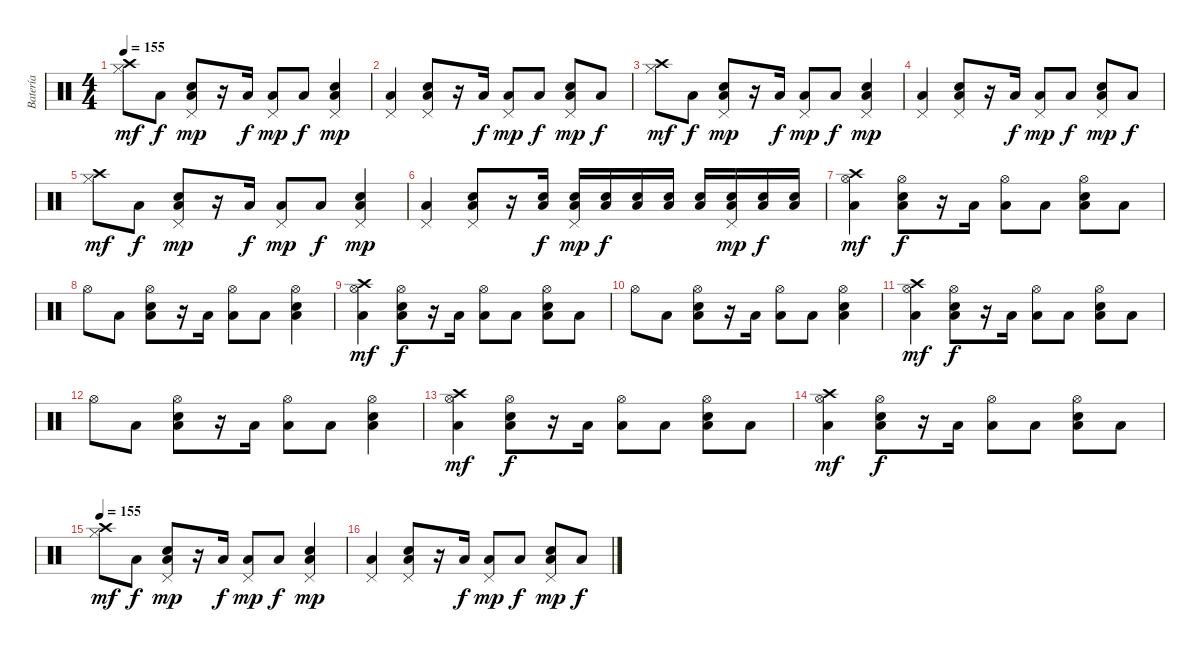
\track ("Batería" "Batería") {instrument percussion}
\staff {score}
\articulation defaults
\ts (4 4)
\tempo 155
\clef neutral
\ks c
("Hi-Hat (closed)" "Crash high (hit)").8{dy mf} "Low Floor Tom (hit)".8{dy f} ("Low Floor Tom (hit)" "Snare (hit) 2" "Pedal Hi-Hat (hit)").8{dy mp} r.16 "Low Floor Tom (hit)".16{dy f} ("Low Floor Tom (hit)" "Pedal Hi-Hat (hit)").8{dy mp} "Low Floor Tom (hit)".8{dy f} ("Low Floor Tom (hit)" "Snare (hit) 2" "Pedal Hi-Hat (hit)").4{dy mp} |
("Low Floor Tom (hit)" "Pedal Hi-Hat (hit)").4 ("Low Floor Tom (hit)" "Snare (hit) 2" "Pedal Hi-Hat (hit)").8 r.16 "Low Floor Tom (hit)".16{dy f} ("Low Floor Tom (hit)" "Pedal Hi-Hat (hit)").8{dy mp} "Low Floor Tom (hit)".8{dy f} ("Low Floor Tom (hit)" "Snare (hit) 2" "Pedal Hi-Hat (hit)").8{dy mp} "Low Floor Tom (hit)".8{dy f} |
("Hi-Hat (closed)" "Crash high (hit)").8{dy mf} "Low Floor Tom (hit)".8{dy f} ("Low Floor Tom (hit)" "Snare (hit) 2" "Pedal Hi-Hat (hit)").8{dy mp} r.16 "Low Floor Tom (hit)".16{dy f} ("Low Floor Tom (hit)" "Pedal Hi-Hat (hit)").8{dy mp} "Low Floor Tom (hit)".8{dy f} ("Low Floor Tom (hit)" "Snare (hit) 2" "Pedal Hi-Hat (hit)").4{dy mp} |
("Low Floor Tom (hit)" "Pedal Hi-Hat (hit)").4 ("Low Floor Tom (hit)" "Snare (hit) 2" "Pedal Hi-Hat (hit)").8 r.16 "Low Floor Tom (hit)".16{dy f} ("Low Floor Tom (hit)" "Pedal Hi-Hat (hit)").8{dy mp} "Low Floor Tom (hit)".8{dy f} ("Low Floor Tom (hit)" "Snare (hit) 2" "Pedal Hi-Hat (hit)").8{dy mp} "Low Floor Tom (hit)".8{dy f} |
("Hi-Hat (closed)" "Crash high (hit)").8{dy mf} "Low Floor Tom (hit)".8{dy f} ("Low Floor Tom (hit)" "Snare (hit) 2" "Pedal Hi-Hat (hit)").8{dy mp} r.16 "Low Floor Tom (hit)".16{dy f} ("Low Floor Tom (hit)" "Pedal Hi-Hat (hit)").8{dy mp} "Low Floor Tom (hit)".8{dy f} ("Low Floor Tom (hit)" "Snare (hit) 2" "Pedal Hi-Hat (hit)").4{dy mp} |
("Low Floor Tom (hit)" "Pedal Hi-Hat (hit)").4 ("Low Floor Tom (hit)" "Snare (hit) 2" "Pedal Hi-Hat (hit)").8 r.16 ("Low Floor Tom (hit)" "Snare (hit) 2").16{dy f} ("Low Floor Tom (hit)" "Snare (hit) 2" "Pedal Hi-Hat (hit)").16{dy mp} ("Low Floor Tom (hit)" "Snare (hit) 2").16{dy f} ("Low Floor Tom (hit)" "Snare (hit) 2").16 ("Low Floor Tom (hit)" "Snare (hit) 2").16 ("Low Floor Tom (hit)" "Snare (hit) 2").16 ("Low Floor Tom (hit)" "Snare (hit) 2" "Pedal Hi-Hat (hit)").16{dy mp} ("Low Floor Tom (hit)" "Snare (hit) 2").16{dy f} ("Low Floor Tom (hit)" "Snare (hit) 2").16 |
("Low Floor Tom (hit)" "Hi-Hat (open)" "Crash high (hit)").4{dy mf} ("Low Floor Tom (hit)" "Snare (hit) 2" "Hi-Hat (open)").8{dy f} r.16 "Low Floor Tom (hit)".16 ("Low Floor Tom (hit)" "Hi-Hat (open)").8 "Low Floor Tom (hit)".8 ("Low Floor Tom (hit)" "Snare (hit) 2" "Hi-Hat (open)").8 "Low Floor Tom (hit)".8 |
"Hi-Hat (open)".8 "Low Floor Tom (hit)".8 ("Low Floor Tom (hit)" "Snare (hit) 2" "Hi-Hat (open)").8 r.16 "Low Floor Tom (hit)".16 ("Low Floor Tom (hit)" "Hi-Hat (open)").8 "Low Floor Tom (hit)".8 ("Low Floor Tom (hit)" "Snare (hit) 2" "Hi-Hat (open)").4 |
("Low Floor Tom (hit)" "Hi-Hat (open)" "Crash high (hit)").4{dy mf} ("Low Floor Tom (hit)" "Snare (hit) 2" "Hi-Hat (open)").8{dy f} r.16 "Low Floor Tom (hit)".16 ("Low Floor Tom (hit)" "Hi-Hat (open)").8 "Low Floor Tom (hit)".8 ("Low Floor Tom (hit)" "Snare (hit) 2" "Hi-Hat (open)").8 "Low Floor Tom (hit)".8 |
"Hi-Hat (open)".8 "Low Floor Tom (hit)".8 ("Low Floor Tom (hit)" "Snare (hit) 2" "Hi-Hat (open)").8 r.16 "Low Floor Tom (hit)".16 ("Low Floor Tom (hit)" "Hi-Hat (open)").8 "Low Floor Tom (hit)".8 ("Low Floor Tom (hit)" "Snare (hit) 2" "Hi-Hat (open)").4 |
("Low Floor Tom (hit)" "Hi-Hat (open)" "Crash high (hit)").4{dy mf} ("Low Floor Tom (hit)" "Snare (hit) 2" "Hi-Hat (open)").8{dy f} r.16 "Low Floor Tom (hit)".16 ("Low Floor Tom (hit)" "Hi-Hat (open)").8 "Low Floor Tom (hit)".8 ("Low Floor Tom (hit)" "Snare (hit) 2" "Hi-Hat (open)").8 "Low Floor Tom (hit)".8 |
"Hi-Hat (open)".8 "Low Floor Tom (hit)".8 ("Low Floor Tom (hit)" "Snare (hit) 2" "Hi-Hat (open)").8 r.16 "Low Floor Tom (hit)".16 ("Low Floor Tom (hit)" "Hi-Hat (open)").8 "Low Floor Tom (hit)".8 ("Low Floor Tom (hit)" "Snare (hit) 2" "Hi-Hat (open)").4 |
("Low Floor Tom (hit)" "Hi-Hat (open)" "Crash high (hit)").4{dy mf} ("Low Floor Tom (hit)" "Snare (hit) 2" "Hi-Hat (open)").8{dy f} r.16 "Low Floor Tom (hit)".16 ("Low Floor Tom (hit)" "Hi-Hat (open)").8 "Low Floor Tom (hit)".8 ("Low Floor Tom (hit)" "Snare (hit) 2" "Hi-Hat (open)").8 "Low Floor Tom (hit)".8 |
("Low Floor Tom (hit)" "Hi-Hat (open)" "Crash high (hit)").4{dy mf} ("Low Floor Tom (hit)" "Snare (hit) 2" "Hi-Hat (open)").8{dy f} r.16 "Low Floor Tom (hit)".16 ("Low Floor Tom (hit)" "Hi-Hat (open)").8 "Low Floor Tom (hit)".8 ("Low Floor Tom (hit)" "Snare (hit) 2" "Hi-Hat (open)").8 "Low Floor Tom (hit)".8 |
\tempo 155
("Hi-Hat (closed)" "Crash high (hit)").8{dy mf} "Low Floor Tom (hit)".8{dy f} ("Low Floor Tom (hit)" "Snare (hit) 2" "Pedal Hi-Hat (hit)").8{dy mp} r.16 "Low Floor Tom (hit)".16{dy f} ("Low Floor Tom (hit)" "Pedal Hi-Hat (hit)").8{dy mp} "Low Floor Tom (hit)".8{dy f} ("Low Floor Tom (hit)" "Snare (hit) 2" "Pedal Hi-Hat (hit)").4{dy mp} |
("Low Floor Tom (hit)" "Pedal Hi-Hat (hit)").4 ("Low Floor Tom (hit)" "Snare (hit) 2" "Pedal Hi-Hat (hit)").8 r.16 "Low Floor Tom (hit)".16{dy f} ("Low Floor Tom (hit)" "Pedal Hi-Hat (hit)").8{dy mp} "Low Floor Tom (hit)".8{dy f} ("Low Floor Tom (hit)" "Snare (hit) 2" "Pedal Hi-Hat (hit)").8{dy mp} "Low Floor Tom (hit)".8{dy f}
